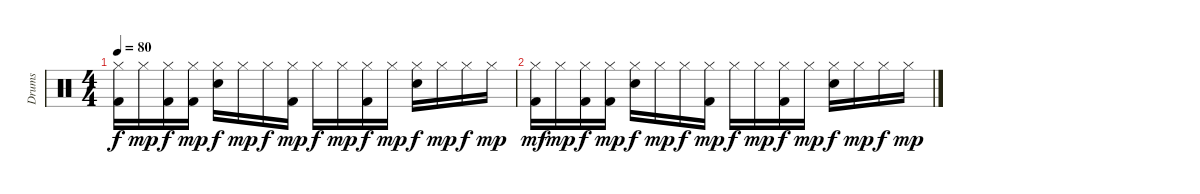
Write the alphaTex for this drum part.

\track ("Drums" "Drums") {instrument percussion}
\staff {score}
\articulation defaults
\ts (4 4)
\tempo 80
\clef neutral
\ks c
("Hi-Hat (closed)" "Kick (hit) 2").16{dy f} "Hi-Hat (closed)".16{dy mp} ("Hi-Hat (closed)" "Kick (hit) 2").16{dy f} ("Hi-Hat (closed)" "Kick (hit) 2").16{dy mp} ("Hi-Hat (closed)" "Electric Snare (hit)").16{dy f} "Hi-Hat (closed)".16{dy mp} "Hi-Hat (closed)".16{dy f} ("Hi-Hat (closed)" "Kick (hit) 2").16{dy mp} "Hi-Hat (closed)".16{dy f} "Hi-Hat (closed)".16{dy mp} ("Hi-Hat (closed)" "Kick (hit) 2").16{dy f} "Hi-Hat (closed)".16{dy mp} ("Hi-Hat (closed)" "Electric Snare (hit)").16{dy f} "Hi-Hat (closed)".16{dy mp} "Hi-Hat (closed)".16{dy f} "Hi-Hat (closed)".16{dy mp} |
("Hi-Hat (closed)" "Kick (hit) 2").16{dy mf} "Hi-Hat (closed)".16{dy mp} ("Hi-Hat (closed)" "Kick (hit) 2").16{dy f} ("Hi-Hat (closed)" "Kick (hit) 2").16{dy mp} ("Hi-Hat (closed)" "Electric Snare (hit)").16{dy f} "Hi-Hat (closed)".16{dy mp} "Hi-Hat (closed)".16{dy f} ("Hi-Hat (closed)" "Kick (hit) 2").16{dy mp} "Hi-Hat (closed)".16{dy f} "Hi-Hat (closed)".16{dy mp} ("Hi-Hat (closed)" "Kick (hit) 2").16{dy f} "Hi-Hat (closed)".16{dy mp} ("Hi-Hat (closed)" "Electric Snare (hit)").16{dy f} "Hi-Hat (closed)".16{dy mp} "Hi-Hat (closed)".16{dy f} "Hi-Hat (closed)".16{dy mp}
